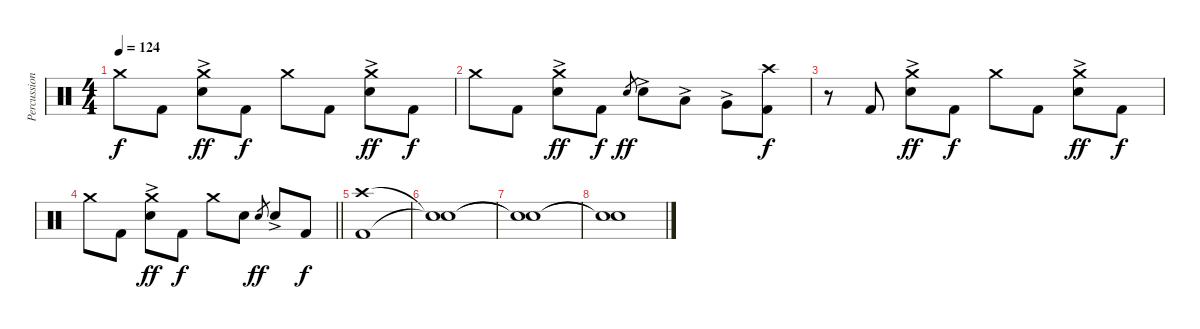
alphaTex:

\track ("Percussion" "Percussion") {instrument percussion}
\staff {score}
\articulation defaults
\ts (4 4)
\tempo 124
\clef neutral
\ks c "Crash medium (hit)".8{dy f} "Kick (hit) 2".8
("Crash medium (hit)" "Electric Snare (hit)"{ac}).8{dy ff} "Kick (hit) 2".8{dy f} "Crash medium (hit)".8 "Kick (hit) 2".8 ("Crash medium (hit)" "Electric Snare (hit)"{ac}).8{dy ff} "Kick (hit) 2".8{dy f} |
"Crash medium (hit)".8 "Kick (hit) 2".8 ("Crash medium (hit)" "Electric Snare (hit)"{ac}).8{dy ff} "Kick (hit) 2".8{dy f} "Electric Snare (hit)".8{gr dy ff} "Electric Snare (hit)"{ac}.8 "Low Tom (hit)"{ac}.8 "Very Low Tom (hit)"{ac}.8 ("Crash high (hit)" "Kick (hit) 2").8{dy f} |
r.8 "Kick (hit) 2".8 ("Crash medium (hit)" "Electric Snare (hit)"{ac}).8{dy ff} "Kick (hit) 2".8{dy f} "Crash medium (hit)".8 "Kick (hit) 2".8 ("Crash medium (hit)" "Electric Snare (hit)"{ac}).8{dy ff} "Kick (hit) 2".8{dy f} |
\barLineRight lightlight "Crash medium (hit)".8 "Kick (hit) 2".8
("Crash medium (hit)" "Electric Snare (hit)"{ac}).8{dy ff} "Kick (hit) 2".8{dy f} "Crash medium (hit)".8 "Electric Snare (hit)".8 "Electric Snare (hit)".8{gr dy ff} "Electric Snare (hit)"{ac}.8 "Kick (hit) 2".8{dy f} |
("Crash high (hit)" "Kick (hit) 2").1 |
("Snare (hit)"{t} "Snare (hit)"{t}).1 |
("Snare (hit)"{t} "Snare (hit)"{t}).1 |
("Snare (hit)"{t} "Snare (hit)"{t}).1
